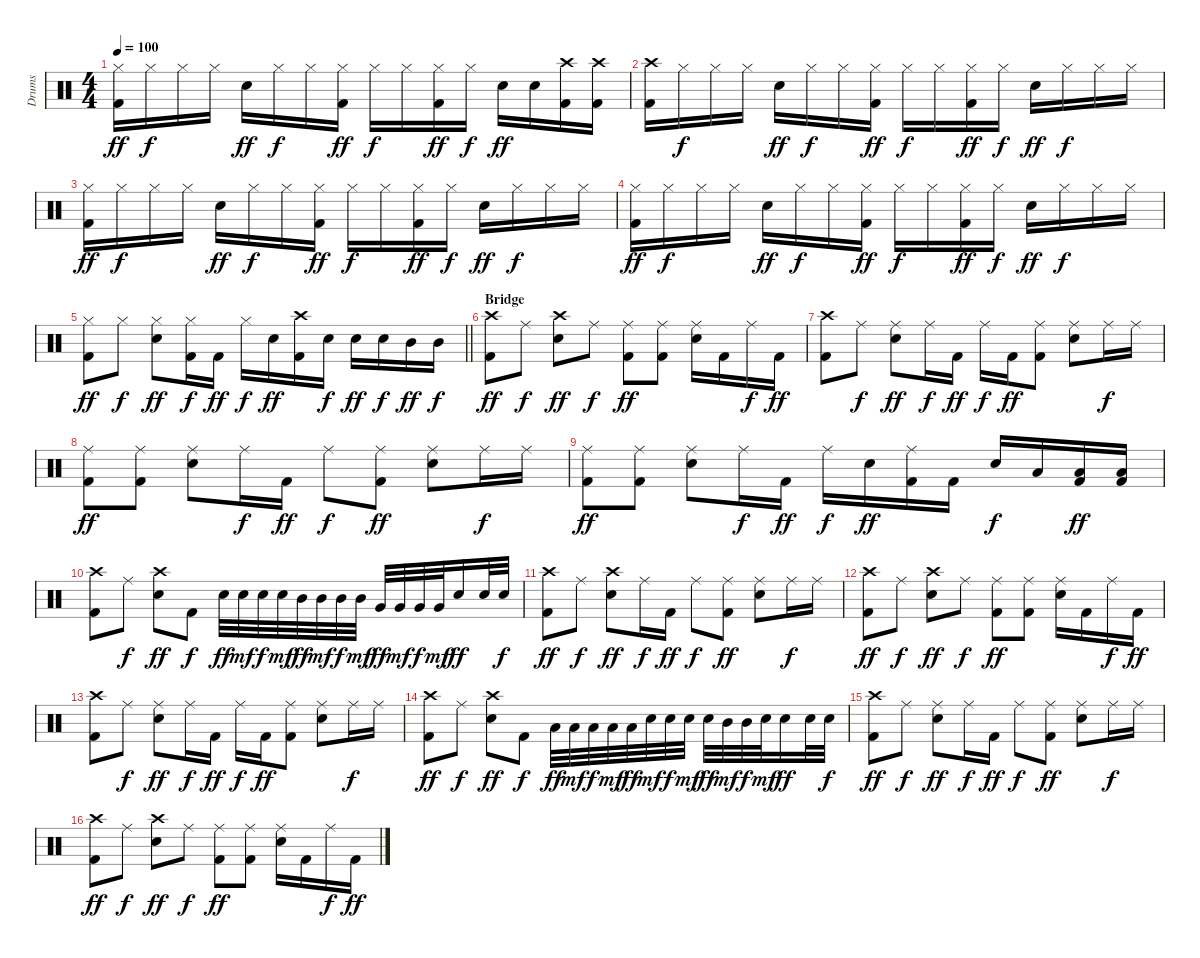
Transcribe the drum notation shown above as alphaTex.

\track ("Drums" "Drums") {instrument percussion}
\staff {score}
\articulation defaults
\ts (4 4)
\tempo 100
\clef neutral
\ks c
("Hi-Hat (closed)" "Kick (hit) 2").16{dy ff} "Hi-Hat (closed)".16{dy f} "Hi-Hat (closed)".16 "Hi-Hat (closed)".16 "Snare (hit) 2".16{dy ff} "Hi-Hat (closed)".16{dy f} "Hi-Hat (closed)".16 ("Hi-Hat (closed)" "Kick (hit) 2").16{dy ff} "Hi-Hat (closed)".16{dy f} "Hi-Hat (closed)".16 ("Hi-Hat (closed)" "Kick (hit) 2").16{dy ff} "Hi-Hat (closed)".16{dy f} "Snare (hit) 2".16{dy ff} "Snare (hit) 2".16 ("Crash high (hit)" "Kick (hit) 2").16 ("Crash high (hit)" "Kick (hit) 2").16 |
("Crash high (hit)" "Kick (hit) 2").16 "Hi-Hat (closed)".16{dy f} "Hi-Hat (closed)".16 "Hi-Hat (closed)".16 "Snare (hit) 2".16{dy ff} "Hi-Hat (closed)".16{dy f} "Hi-Hat (closed)".16 ("Hi-Hat (closed)" "Kick (hit) 2").16{dy ff} "Hi-Hat (closed)".16{dy f} "Hi-Hat (closed)".16 ("Hi-Hat (closed)" "Kick (hit) 2").16{dy ff} "Hi-Hat (closed)".16{dy f} "Snare (hit) 2".16{dy ff} "Hi-Hat (closed)".16{dy f} "Hi-Hat (closed)".16 "Hi-Hat (closed)".16 |
("Hi-Hat (closed)" "Kick (hit) 2").16{dy ff} "Hi-Hat (closed)".16{dy f} "Hi-Hat (closed)".16 "Hi-Hat (closed)".16 "Snare (hit) 2".16{dy ff} "Hi-Hat (closed)".16{dy f} "Hi-Hat (closed)".16 ("Hi-Hat (closed)" "Kick (hit) 2").16{dy ff} "Hi-Hat (closed)".16{dy f} "Hi-Hat (closed)".16 ("Hi-Hat (closed)" "Kick (hit) 2").16{dy ff} "Hi-Hat (closed)".16{dy f} "Snare (hit) 2".16{dy ff} "Hi-Hat (closed)".16{dy f} "Hi-Hat (closed)".16 "Hi-Hat (closed)".16 |
("Hi-Hat (closed)" "Kick (hit) 2").16{dy ff} "Hi-Hat (closed)".16{dy f} "Hi-Hat (closed)".16 "Hi-Hat (closed)".16 "Snare (hit) 2".16{dy ff} "Hi-Hat (closed)".16{dy f} "Hi-Hat (closed)".16 ("Hi-Hat (closed)" "Kick (hit) 2").16{dy ff} "Hi-Hat (closed)".16{dy f} "Hi-Hat (closed)".16 ("Hi-Hat (closed)" "Kick (hit) 2").16{dy ff} "Hi-Hat (closed)".16{dy f} "Snare (hit) 2".16{dy ff} "Hi-Hat (closed)".16{dy f} "Hi-Hat (closed)".16 "Hi-Hat (closed)".16 |
\barLineRight lightlight
("Hi-Hat (closed)" "Kick (hit) 2").8{dy ff} "Hi-Hat (closed)".8{dy f} ("Hi-Hat (closed)" "Snare (hit) 2").8{dy ff} ("Hi-Hat (closed)" "Kick (hit) 2").16{dy f} "Kick (hit) 2".16{dy ff} "Hi-Hat (closed)".16{dy f} "Snare (hit) 2".16{dy ff} ("Crash high (hit)" "Kick (hit) 2").16 "Snare (hit) 2".16{dy f} "Snare (hit) 2".16{dy ff} "Snare (hit) 2".16{dy f} "Mid Tom (hit)".16{dy ff} "Mid Tom (hit)".16{dy f} |
\section ("" "Bridge")
("Crash high (hit)" "Kick (hit) 2").8{dy ff} "Ride (middle)".8{dy f} ("Crash high (hit)" "Snare (hit) 2").8{dy ff} "Ride (middle)".8{dy f} ("Ride (middle)" "Kick (hit) 2").8{dy ff} ("Ride (middle)" "Kick (hit) 2").8 ("Ride (middle)" "Snare (hit) 2").16 "Kick (hit) 2".16 "Ride (middle)".16{dy f} "Kick (hit) 2".16{dy ff} |
("Crash high (hit)" "Kick (hit) 2").8 "Ride (middle)".8{dy f} ("Ride (middle)" "Snare (hit) 2").8{dy ff} "Ride (middle)".16{dy f} "Kick (hit) 2".16{dy ff} "Ride (middle)".16{dy f} "Kick (hit) 2".16{dy ff} ("Ride (middle)" "Kick (hit) 2").8 ("Ride (middle)" "Snare (hit) 2").8 "Ride (middle)".16{dy f} "Ride (middle)".16 |
("Ride (middle)" "Kick (hit) 2").8{dy ff} ("Ride (middle)" "Kick (hit) 2").8 ("Ride (middle)" "Snare (hit) 2").8 "Ride (middle)".16{dy f} "Kick (hit) 2".16{dy ff} "Ride (middle)".8{dy f} ("Ride (middle)" "Kick (hit) 2").8{dy ff} ("Ride (middle)" "Snare (hit) 2").8 "Ride (middle)".16{dy f} "Ride (middle)".16 |
("Ride (middle)" "Kick (hit) 2").8{dy ff} ("Ride (middle)" "Kick (hit) 2").8 ("Ride (middle)" "Snare (hit) 2").8 "Ride (middle)".16{dy f} "Kick (hit) 2".16{dy ff} "Ride (middle)".16{dy f} "Snare (hit) 2".16{dy ff} ("Ride (middle)" "Kick (hit) 2").16 "Kick (hit) 2".16 "Snare (hit) 2".16{dy f} "Low Floor Tom (hit)".16 ("Low Floor Tom (hit)" "Kick (hit) 2").16{dy ff} ("Low Floor Tom (hit)" "Kick (hit) 2").16 |
("Crash high (hit)" "Kick (hit) 2").8 "Ride (middle)".8{dy f} ("Crash high (hit)" "Snare (hit) 2").8{dy ff} "Kick (hit) 2".8{dy f} "Snare (hit) 2".32{dy ff} "Snare (hit) 2".32{dy mf} "Snare (hit) 2".32{dy f} "Snare (hit) 2".32{dy mf} "Mid Tom (hit)".32{dy ff} "Mid Tom (hit)".32{dy mf} "Mid Tom (hit)".32{dy f} "Mid Tom (hit)".32{dy mf} "Very Low Tom (hit)".32{dy ff} "Very Low Tom (hit)".32{dy mf} "Very Low Tom (hit)".32{dy f} "Very Low Tom (hit)".32{dy mf} "Snare (hit) 2".16{dy ff} "Snare (hit) 2".32 "Snare (hit) 2".32{dy f} |
("Crash high (hit)" "Kick (hit) 2").8{dy ff} "Ride (middle)".8{dy f} ("Crash high (hit)" "Snare (hit) 2").8{dy ff} "Ride (middle)".16{dy f} "Kick (hit) 2".16{dy ff} "Ride (middle)".8{dy f} ("Ride (middle)" "Kick (hit) 2").8{dy ff} ("Ride (middle)" "Snare (hit) 2").8 "Ride (middle)".16{dy f} "Ride (middle)".16 |
("Crash high (hit)" "Kick (hit) 2").8{dy ff} "Ride (middle)".8{dy f} ("Crash high (hit)" "Snare (hit) 2").8{dy ff} "Ride (middle)".8{dy f} ("Ride (middle)" "Kick (hit) 2").8{dy ff} ("Ride (middle)" "Kick (hit) 2").8 ("Ride (middle)" "Snare (hit) 2").16 "Kick (hit) 2".16 "Ride (middle)".16{dy f} "Kick (hit) 2".16{dy ff} |
("Crash high (hit)" "Kick (hit) 2").8 "Ride (middle)".8{dy f} ("Ride (middle)" "Snare (hit) 2").8{dy ff} "Ride (middle)".16{dy f} "Kick (hit) 2".16{dy ff} "Ride (middle)".16{dy f} "Kick (hit) 2".16{dy ff} ("Ride (middle)" "Kick (hit) 2").8 ("Ride (middle)" "Snare (hit) 2").8 "Ride (middle)".16{dy f} "Ride (middle)".16 |
("Crash high (hit)" "Kick (hit) 2").8{dy ff} "Ride (middle)".8{dy f} ("Crash high (hit)" "Snare (hit) 2").8{dy ff} "Kick (hit) 2".8{dy f} "Low Floor Tom (hit)".32{dy ff} "Low Floor Tom (hit)".32{dy mf} "Low Floor Tom (hit)".32{dy f} "Low Floor Tom (hit)".32{dy mf} "Low Floor Tom (hit)".32{dy ff} "Snare (hit) 2".32{dy mf} "Snare (hit) 2".32{dy f} "Snare (hit) 2".32{dy mf} "Snare (hit) 2".32{dy ff} "Mid Tom (hit)".32{dy mf} "Mid Tom (hit)".32{dy f} "Snare (hit) 2".32{dy mf} "Snare (hit) 2".16{dy ff} "Snare (hit) 2".32 "Snare (hit) 2".32{dy f} |
("Crash high (hit)" "Kick (hit) 2").8{dy ff} "Ride (middle)".8{dy f} ("Ride (middle)" "Snare (hit) 2").8{dy ff} "Ride (middle)".16{dy f} "Kick (hit) 2".16{dy ff} "Ride (middle)".8{dy f} ("Ride (middle)" "Kick (hit) 2").8{dy ff} ("Ride (middle)" "Snare (hit) 2").8 "Ride (middle)".16{dy f} "Ride (middle)".16 |
("Crash high (hit)" "Kick (hit) 2").8{dy ff} "Ride (middle)".8{dy f} ("Crash high (hit)" "Snare (hit) 2").8{dy ff} "Ride (middle)".8{dy f} ("Ride (middle)" "Kick (hit) 2").8{dy ff} ("Ride (middle)" "Kick (hit) 2").8 ("Ride (middle)" "Snare (hit) 2").16 "Kick (hit) 2".16 "Ride (middle)".16{dy f} "Kick (hit) 2".16{dy ff}
